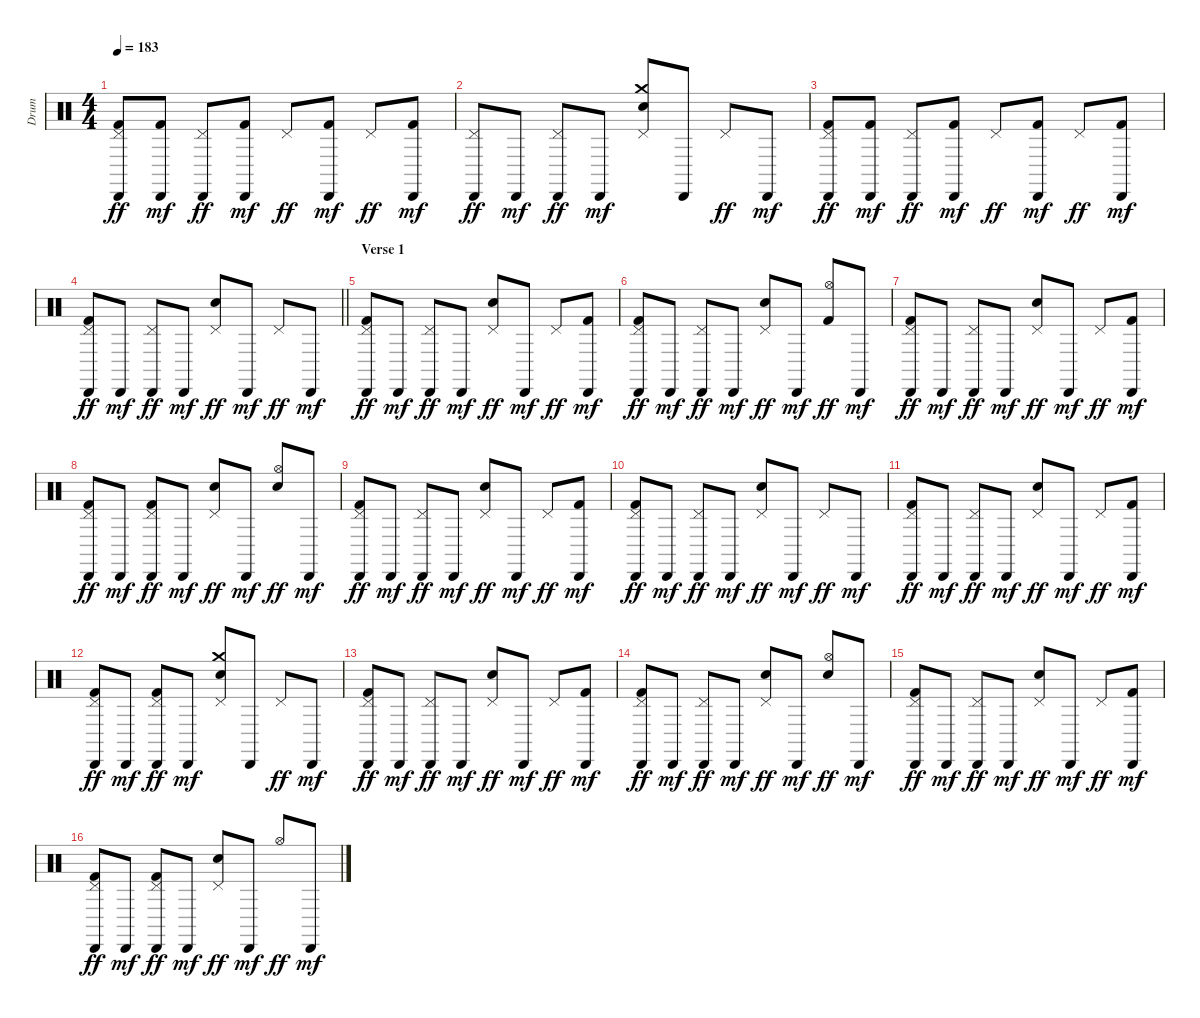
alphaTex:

\track ("Drum" "Drum") {instrument percussion}
\staff {score}
\articulation defaults
\ts (4 4)
\tempo 183
\clef neutral
\ks c
("Cabasa (hit)" "Kick (hit) 2" "Pedal Hi-Hat (hit)").8{dy ff} ("Cabasa (hit)" "Kick (hit) 2").8{dy mf} ("Cabasa (hit)" "Pedal Hi-Hat (hit)").8{dy ff} ("Cabasa (hit)" "Kick (hit) 2").8{dy mf} "Pedal Hi-Hat (hit)".8{dy ff} ("Cabasa (hit)" "Kick (hit) 2").8{dy mf} "Pedal Hi-Hat (hit)".8{dy ff} ("Cabasa (hit)" "Kick (hit) 2").8{dy mf} |
("Cabasa (hit)" "Pedal Hi-Hat (hit)").8{dy ff} "Cabasa (hit)".8{dy mf} ("Cabasa (hit)" "Pedal Hi-Hat (hit)").8{dy ff} "Cabasa (hit)".8{dy mf} ("Electric Snare (hit)" "Pedal Hi-Hat (hit)" "Crash medium (hit)").8 "Cabasa (hit)".8 "Pedal Hi-Hat (hit)".8{dy ff} "Cabasa (hit)".8{dy mf} |
("Cabasa (hit)" "Kick (hit) 2" "Pedal Hi-Hat (hit)").8{dy ff} ("Cabasa (hit)" "Kick (hit) 2").8{dy mf} ("Cabasa (hit)" "Pedal Hi-Hat (hit)").8{dy ff} ("Cabasa (hit)" "Kick (hit) 2").8{dy mf} "Pedal Hi-Hat (hit)".8{dy ff} ("Cabasa (hit)" "Kick (hit) 2").8{dy mf} "Pedal Hi-Hat (hit)".8{dy ff} ("Cabasa (hit)" "Kick (hit) 2").8{dy mf} |
\barLineRight lightlight
("Cabasa (hit)" "Kick (hit) 2" "Pedal Hi-Hat (hit)").8{dy ff} "Cabasa (hit)".8{dy mf} ("Cabasa (hit)" "Pedal Hi-Hat (hit)").8{dy ff} "Cabasa (hit)".8{dy mf} ("Electric Snare (hit)" "Pedal Hi-Hat (hit)").8{dy ff} "Cabasa (hit)".8{dy mf} "Pedal Hi-Hat (hit)".8{dy ff} "Cabasa (hit)".8{dy mf} |
\section ("" "Verse 1")
("Cabasa (hit)" "Kick (hit) 2" "Pedal Hi-Hat (hit)").8{dy ff} "Cabasa (hit)".8{dy mf} ("Cabasa (hit)" "Pedal Hi-Hat (hit)").8{dy ff} "Cabasa (hit)".8{dy mf} ("Electric Snare (hit)" "Pedal Hi-Hat (hit)").8{dy ff} "Cabasa (hit)".8{dy mf} "Pedal Hi-Hat (hit)".8{dy ff} ("Cabasa (hit)" "Kick (hit) 2").8{dy mf} |
("Cabasa (hit)" "Kick (hit) 2" "Pedal Hi-Hat (hit)").8{dy ff} "Cabasa (hit)".8{dy mf} ("Cabasa (hit)" "Pedal Hi-Hat (hit)").8{dy ff} "Cabasa (hit)".8{dy mf} ("Electric Snare (hit)" "Pedal Hi-Hat (hit)").8{dy ff} "Cabasa (hit)".8{dy mf} ("Kick (hit) 2" "Hi-Hat (open)").8{dy ff} "Cabasa (hit)".8{dy mf} |
("Cabasa (hit)" "Kick (hit) 2" "Pedal Hi-Hat (hit)").8{dy ff} "Cabasa (hit)".8{dy mf} ("Cabasa (hit)" "Pedal Hi-Hat (hit)").8{dy ff} "Cabasa (hit)".8{dy mf} ("Electric Snare (hit)" "Pedal Hi-Hat (hit)").8{dy ff} "Cabasa (hit)".8{dy mf} "Pedal Hi-Hat (hit)".8{dy ff} ("Cabasa (hit)" "Kick (hit) 2").8{dy mf} |
("Cabasa (hit)" "Kick (hit) 2" "Pedal Hi-Hat (hit)").8{dy ff} "Cabasa (hit)".8{dy mf} ("Cabasa (hit)" "Kick (hit) 2" "Pedal Hi-Hat (hit)").8{dy ff} "Cabasa (hit)".8{dy mf} ("Electric Snare (hit)" "Pedal Hi-Hat (hit)").8{dy ff} "Cabasa (hit)".8{dy mf} ("Electric Snare (hit)" "Hi-Hat (open)").8{dy ff} "Cabasa (hit)".8{dy mf} |
("Cabasa (hit)" "Kick (hit) 2" "Pedal Hi-Hat (hit)").8{dy ff} "Cabasa (hit)".8{dy mf} ("Cabasa (hit)" "Pedal Hi-Hat (hit)").8{dy ff} "Cabasa (hit)".8{dy mf} ("Electric Snare (hit)" "Pedal Hi-Hat (hit)").8{dy ff} "Cabasa (hit)".8{dy mf} "Pedal Hi-Hat (hit)".8{dy ff} ("Cabasa (hit)" "Kick (hit) 2").8{dy mf} |
("Cabasa (hit)" "Kick (hit) 2" "Pedal Hi-Hat (hit)").8{dy ff} "Cabasa (hit)".8{dy mf} ("Cabasa (hit)" "Pedal Hi-Hat (hit)").8{dy ff} "Cabasa (hit)".8{dy mf} ("Electric Snare (hit)" "Pedal Hi-Hat (hit)").8{dy ff} "Cabasa (hit)".8{dy mf} "Pedal Hi-Hat (hit)".8{dy ff} "Cabasa (hit)".8{dy mf} |
("Cabasa (hit)" "Kick (hit) 2" "Pedal Hi-Hat (hit)").8{dy ff} "Cabasa (hit)".8{dy mf} ("Cabasa (hit)" "Pedal Hi-Hat (hit)").8{dy ff} "Cabasa (hit)".8{dy mf} ("Electric Snare (hit)" "Pedal Hi-Hat (hit)").8{dy ff} "Cabasa (hit)".8{dy mf} "Pedal Hi-Hat (hit)".8{dy ff} ("Cabasa (hit)" "Kick (hit) 2").8{dy mf} |
("Cabasa (hit)" "Kick (hit) 2" "Pedal Hi-Hat (hit)").8{dy ff} "Cabasa (hit)".8{dy mf} ("Cabasa (hit)" "Kick (hit) 2" "Pedal Hi-Hat (hit)").8{dy ff} "Cabasa (hit)".8{dy mf} ("Electric Snare (hit)" "Pedal Hi-Hat (hit)" "Crash medium (hit)").8 "Cabasa (hit)".8 "Pedal Hi-Hat (hit)".8{dy ff} "Cabasa (hit)".8{dy mf} |
("Cabasa (hit)" "Kick (hit) 2" "Pedal Hi-Hat (hit)").8{dy ff} "Cabasa (hit)".8{dy mf} ("Cabasa (hit)" "Pedal Hi-Hat (hit)").8{dy ff} "Cabasa (hit)".8{dy mf} ("Electric Snare (hit)" "Pedal Hi-Hat (hit)").8{dy ff} "Cabasa (hit)".8{dy mf} "Pedal Hi-Hat (hit)".8{dy ff} ("Cabasa (hit)" "Kick (hit) 2").8{dy mf} |
("Cabasa (hit)" "Kick (hit) 2" "Pedal Hi-Hat (hit)").8{dy ff} "Cabasa (hit)".8{dy mf} ("Cabasa (hit)" "Pedal Hi-Hat (hit)").8{dy ff} "Cabasa (hit)".8{dy mf} ("Electric Snare (hit)" "Pedal Hi-Hat (hit)").8{dy ff} "Cabasa (hit)".8{dy mf} ("Electric Snare (hit)" "Hi-Hat (open)").8{dy ff} "Cabasa (hit)".8{dy mf} |
("Cabasa (hit)" "Kick (hit) 2" "Pedal Hi-Hat (hit)").8{dy ff} "Cabasa (hit)".8{dy mf} ("Cabasa (hit)" "Pedal Hi-Hat (hit)").8{dy ff} "Cabasa (hit)".8{dy mf} ("Electric Snare (hit)" "Pedal Hi-Hat (hit)").8{dy ff} "Cabasa (hit)".8{dy mf} "Pedal Hi-Hat (hit)".8{dy ff} ("Cabasa (hit)" "Kick (hit) 2").8{dy mf} |
("Cabasa (hit)" "Kick (hit) 2" "Pedal Hi-Hat (hit)").8{dy ff} "Cabasa (hit)".8{dy mf} ("Cabasa (hit)" "Kick (hit) 2" "Pedal Hi-Hat (hit)").8{dy ff} "Cabasa (hit)".8{dy mf} ("Electric Snare (hit)" "Pedal Hi-Hat (hit)").8{dy ff} "Cabasa (hit)".8{dy mf} "Hi-Hat (open)".8{dy ff} "Cabasa (hit)".8{dy mf}
